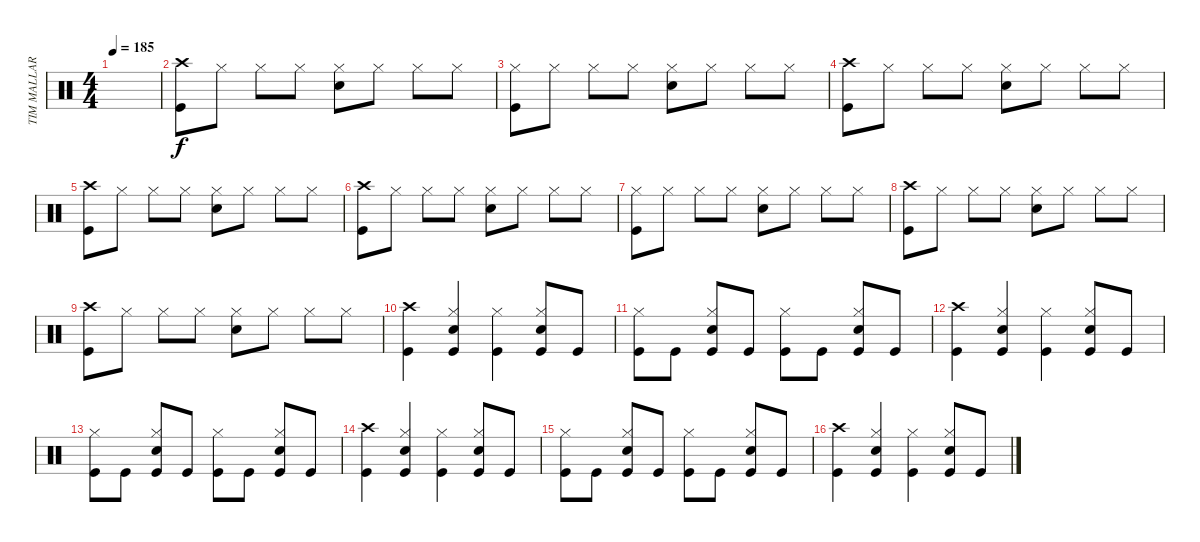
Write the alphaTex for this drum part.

\track ("TIM MALLARE - drums" "TIM MALLAR") {instrument percussion}
\staff {score}
\articulation defaults
\ts (4 4)
\tempo 185
\clef neutral
\ks c
|
("Crash high (hit)" "Kick (hit)").8 "Hi-Hat (closed)".8 "Hi-Hat (closed)".8 "Hi-Hat (closed)".8 ("Hi-Hat (closed)" "Electric Snare (hit)").8 "Hi-Hat (closed)".8 "Hi-Hat (closed)".8 "Hi-Hat (closed)".8 |
("Hi-Hat (closed)" "Kick (hit)").8 "Hi-Hat (closed)".8 "Hi-Hat (closed)".8 "Hi-Hat (closed)".8 ("Hi-Hat (closed)" "Electric Snare (hit)").8 "Hi-Hat (closed)".8 "Hi-Hat (closed)".8 "Hi-Hat (closed)".8 |
("Crash high (hit)" "Kick (hit)").8 "Hi-Hat (closed)".8 "Hi-Hat (closed)".8 "Hi-Hat (closed)".8 ("Hi-Hat (closed)" "Electric Snare (hit)").8 "Hi-Hat (closed)".8 "Hi-Hat (closed)".8 "Hi-Hat (closed)".8 |
("Crash high (hit)" "Kick (hit)").8 "Hi-Hat (closed)".8 "Hi-Hat (closed)".8 "Hi-Hat (closed)".8 ("Hi-Hat (closed)" "Electric Snare (hit)").8 "Hi-Hat (closed)".8 "Hi-Hat (closed)".8 "Hi-Hat (closed)".8 |
("Crash high (hit)" "Kick (hit)").8 "Hi-Hat (closed)".8 "Hi-Hat (closed)".8 "Hi-Hat (closed)".8 ("Hi-Hat (closed)" "Electric Snare (hit)").8 "Hi-Hat (closed)".8 "Hi-Hat (closed)".8 "Hi-Hat (closed)".8 |
("Hi-Hat (closed)" "Kick (hit)").8 "Hi-Hat (closed)".8 "Hi-Hat (closed)".8 "Hi-Hat (closed)".8 ("Hi-Hat (closed)" "Electric Snare (hit)").8 "Hi-Hat (closed)".8 "Hi-Hat (closed)".8 "Hi-Hat (closed)".8 |
("Crash high (hit)" "Kick (hit)").8 "Hi-Hat (closed)".8 "Hi-Hat (closed)".8 "Hi-Hat (closed)".8 ("Hi-Hat (closed)" "Electric Snare (hit)").8 "Hi-Hat (closed)".8 "Hi-Hat (closed)".8 "Hi-Hat (closed)".8 |
("Crash high (hit)" "Kick (hit)").8 "Hi-Hat (closed)".8 "Hi-Hat (closed)".8 "Hi-Hat (closed)".8 ("Hi-Hat (closed)" "Electric Snare (hit)").8 "Hi-Hat (closed)".8 "Hi-Hat (closed)".8 "Hi-Hat (closed)".8 |
("Crash high (hit)" "Kick (hit)").4 ("Hi-Hat (closed)" "Electric Snare (hit)" "Kick (hit)").4 ("Hi-Hat (closed)" "Kick (hit)").4 ("Hi-Hat (closed)" "Electric Snare (hit)" "Kick (hit)").8 "Kick (hit)".8 |
("Hi-Hat (closed)" "Kick (hit)").8 "Kick (hit)".8 ("Hi-Hat (closed)" "Electric Snare (hit)" "Kick (hit)").8 "Kick (hit)".8 ("Hi-Hat (closed)" "Kick (hit)").8 "Kick (hit)".8 ("Hi-Hat (closed)" "Electric Snare (hit)" "Kick (hit)").8 "Kick (hit)".8 |
("Crash high (hit)" "Kick (hit)").4 ("Hi-Hat (closed)" "Electric Snare (hit)" "Kick (hit)").4 ("Hi-Hat (closed)" "Kick (hit)").4 ("Hi-Hat (closed)" "Electric Snare (hit)" "Kick (hit)").8 "Kick (hit)".8 |
("Hi-Hat (closed)" "Kick (hit)").8 "Kick (hit)".8 ("Hi-Hat (closed)" "Electric Snare (hit)" "Kick (hit)").8 "Kick (hit)".8 ("Hi-Hat (closed)" "Kick (hit)").8 "Kick (hit)".8 ("Hi-Hat (closed)" "Electric Snare (hit)" "Kick (hit)").8 "Kick (hit)".8 |
("Crash high (hit)" "Kick (hit)").4 ("Hi-Hat (closed)" "Electric Snare (hit)" "Kick (hit)").4 ("Hi-Hat (closed)" "Kick (hit)").4 ("Hi-Hat (closed)" "Electric Snare (hit)" "Kick (hit)").8 "Kick (hit)".8 |
("Hi-Hat (closed)" "Kick (hit)").8 "Kick (hit)".8 ("Hi-Hat (closed)" "Electric Snare (hit)" "Kick (hit)").8 "Kick (hit)".8 ("Hi-Hat (closed)" "Kick (hit)").8 "Kick (hit)".8 ("Hi-Hat (closed)" "Electric Snare (hit)" "Kick (hit)").8 "Kick (hit)".8 |
("Crash high (hit)" "Kick (hit)").4 ("Hi-Hat (closed)" "Electric Snare (hit)" "Kick (hit)").4 ("Hi-Hat (closed)" "Kick (hit)").4 ("Hi-Hat (closed)" "Electric Snare (hit)" "Kick (hit)").8 "Kick (hit)".8
